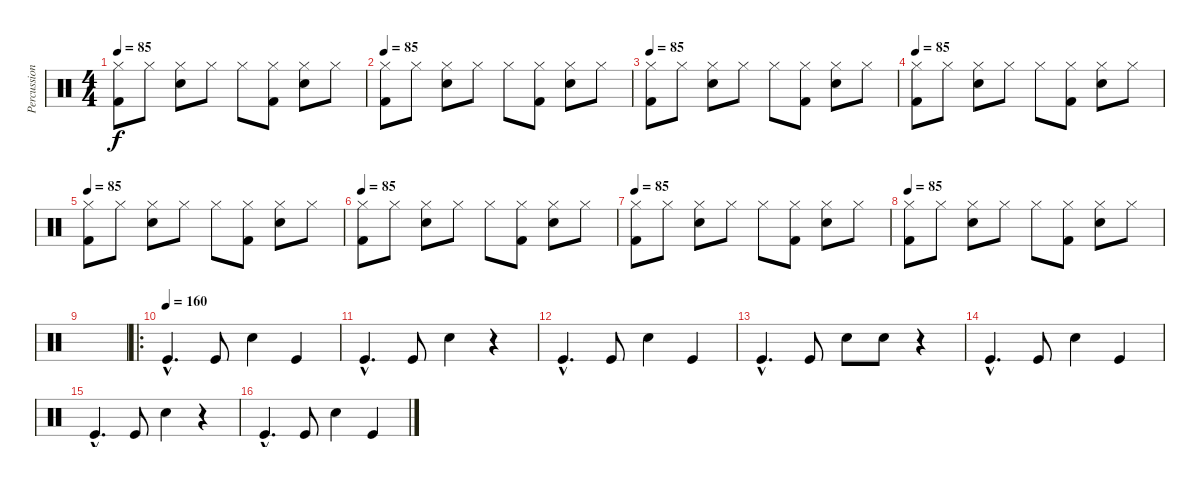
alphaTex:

\track ("Percussion" "Percussion") {instrument percussion}
\staff {score}
\articulation defaults
\ts (4 4)
\tempo 85
\clef neutral
\ks c
("Hi-Hat (closed)" "Kick (hit) 2").8{dy f} "Hi-Hat (closed)".8 ("Hi-Hat (closed)" "Electric Snare (hit)").8 "Hi-Hat (closed)".8 "Hi-Hat (closed)".8 ("Hi-Hat (closed)" "Kick (hit) 2").8 ("Hi-Hat (closed)" "Electric Snare (hit)").8 "Hi-Hat (closed)".8 |
\tempo 85
("Hi-Hat (closed)" "Kick (hit) 2").8 "Hi-Hat (closed)".8 ("Hi-Hat (closed)" "Electric Snare (hit)").8 "Hi-Hat (closed)".8 "Hi-Hat (closed)".8 ("Hi-Hat (closed)" "Kick (hit) 2").8 ("Hi-Hat (closed)" "Electric Snare (hit)").8 "Hi-Hat (closed)".8 |
\tempo 85
("Hi-Hat (closed)" "Kick (hit) 2").8 "Hi-Hat (closed)".8 ("Hi-Hat (closed)" "Electric Snare (hit)").8 "Hi-Hat (closed)".8 "Hi-Hat (closed)".8 ("Hi-Hat (closed)" "Kick (hit) 2").8 ("Hi-Hat (closed)" "Electric Snare (hit)").8 "Hi-Hat (closed)".8 |
\tempo 85
("Hi-Hat (closed)" "Kick (hit) 2").8 "Hi-Hat (closed)".8 ("Hi-Hat (closed)" "Electric Snare (hit)").8 "Hi-Hat (closed)".8 "Hi-Hat (closed)".8 ("Hi-Hat (closed)" "Kick (hit) 2").8 ("Hi-Hat (closed)" "Electric Snare (hit)").8 "Hi-Hat (closed)".8 |
\tempo 85
("Hi-Hat (closed)" "Kick (hit) 2").8 "Hi-Hat (closed)".8 ("Hi-Hat (closed)" "Electric Snare (hit)").8 "Hi-Hat (closed)".8 "Hi-Hat (closed)".8 ("Hi-Hat (closed)" "Kick (hit) 2").8 ("Hi-Hat (closed)" "Electric Snare (hit)").8 "Hi-Hat (closed)".8 |
\tempo 85
("Hi-Hat (closed)" "Kick (hit) 2").8 "Hi-Hat (closed)".8 ("Hi-Hat (closed)" "Electric Snare (hit)").8 "Hi-Hat (closed)".8 "Hi-Hat (closed)".8 ("Hi-Hat (closed)" "Kick (hit) 2").8 ("Hi-Hat (closed)" "Electric Snare (hit)").8 "Hi-Hat (closed)".8 |
\tempo 85
("Hi-Hat (closed)" "Kick (hit) 2").8 "Hi-Hat (closed)".8 ("Hi-Hat (closed)" "Electric Snare (hit)").8 "Hi-Hat (closed)".8 "Hi-Hat (closed)".8 ("Hi-Hat (closed)" "Kick (hit) 2").8 ("Hi-Hat (closed)" "Electric Snare (hit)").8 "Hi-Hat (closed)".8 |
\tempo 85
("Hi-Hat (closed)" "Kick (hit) 2").8 "Hi-Hat (closed)".8 ("Hi-Hat (closed)" "Electric Snare (hit)").8 "Hi-Hat (closed)".8 "Hi-Hat (closed)".8 ("Hi-Hat (closed)" "Kick (hit) 2").8 ("Hi-Hat (closed)" "Electric Snare (hit)").8 "Hi-Hat (closed)".8 |
|
\ro
\tempo (160)
"Kick (hit)"{hac}.4{d} "Kick (hit)".8 "Electric Snare (hit)".4 "Kick (hit)".4 |
"Kick (hit)"{hac}.4{d} "Kick (hit)".8 "Electric Snare (hit)".4 r.4 |
"Kick (hit)"{hac}.4{d} "Kick (hit)".8 "Electric Snare (hit)".4 "Kick (hit)".4 |
"Kick (hit)"{hac}.4{d} "Kick (hit)".8 "Electric Snare (hit)".8 "Electric Snare (hit)".8 r.4 |
"Kick (hit)"{hac}.4{d} "Kick (hit)".8 "Electric Snare (hit)".4 "Kick (hit)".4 |
"Kick (hit)"{hac}.4{d} "Kick (hit)".8 "Electric Snare (hit)".4 r.4 |
"Kick (hit)"{hac}.4{d} "Kick (hit)".8 "Electric Snare (hit)".4 "Kick (hit)".4
